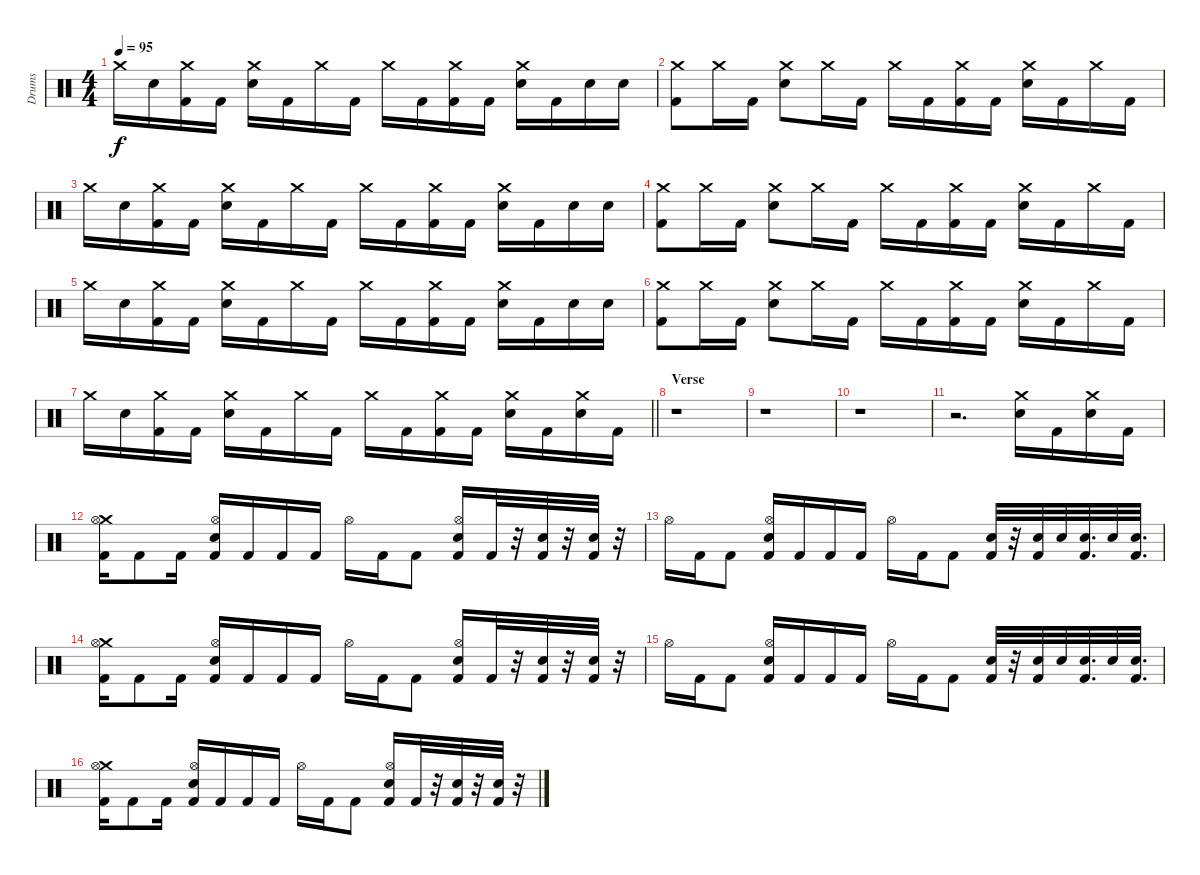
\track ("Drums" "Drums") {instrument percussion}
\staff {score}
\articulation defaults
\ts (4 4)
\tempo 95
\clef neutral
\ks c "Crash medium (hit)".16{dy f} "Electric Snare (hit)".16
("Crash medium (hit)" "Kick (hit) 2").16 "Kick (hit) 2".16 ("Crash medium (hit)" "Electric Snare (hit)").16 "Kick (hit) 2".16 "Crash medium (hit)".16 "Kick (hit) 2".16 "Crash medium (hit)".16 "Kick (hit) 2".16 ("Crash medium (hit)" "Kick (hit) 2").16 "Kick (hit) 2".16 ("Crash medium (hit)" "Electric Snare (hit)").16 "Kick (hit) 2".16 "Electric Snare (hit)".16 "Electric Snare (hit)".16 |
("Crash medium (hit)" "Kick (hit) 2").8 "Crash medium (hit)".16 "Kick (hit) 2".16 ("Crash medium (hit)" "Electric Snare (hit)").8 "Crash medium (hit)".16 "Kick (hit) 2".16 "Crash medium (hit)".16 "Kick (hit) 2".16 ("Crash medium (hit)" "Kick (hit) 2").16 "Kick (hit) 2".16 ("Crash medium (hit)" "Electric Snare (hit)").16 "Kick (hit) 2".16 "Crash medium (hit)".16 "Kick (hit) 2".16 |
"Crash medium (hit)".16 "Electric Snare (hit)".16 ("Crash medium (hit)" "Kick (hit) 2").16 "Kick (hit) 2".16 ("Crash medium (hit)" "Electric Snare (hit)").16 "Kick (hit) 2".16 "Crash medium (hit)".16 "Kick (hit) 2".16 "Crash medium (hit)".16 "Kick (hit) 2".16 ("Crash medium (hit)" "Kick (hit) 2").16 "Kick (hit) 2".16 ("Crash medium (hit)" "Electric Snare (hit)").16 "Kick (hit) 2".16 "Electric Snare (hit)".16 "Electric Snare (hit)".16 |
("Crash medium (hit)" "Kick (hit) 2").8 "Crash medium (hit)".16 "Kick (hit) 2".16 ("Crash medium (hit)" "Electric Snare (hit)").8 "Crash medium (hit)".16 "Kick (hit) 2".16 "Crash medium (hit)".16 "Kick (hit) 2".16 ("Crash medium (hit)" "Kick (hit) 2").16 "Kick (hit) 2".16 ("Crash medium (hit)" "Electric Snare (hit)").16 "Kick (hit) 2".16 "Crash medium (hit)".16 "Kick (hit) 2".16 |
"Crash medium (hit)".16 "Electric Snare (hit)".16 ("Crash medium (hit)" "Kick (hit) 2").16 "Kick (hit) 2".16 ("Crash medium (hit)" "Electric Snare (hit)").16 "Kick (hit) 2".16 "Crash medium (hit)".16 "Kick (hit) 2".16 "Crash medium (hit)".16 "Kick (hit) 2".16 ("Crash medium (hit)" "Kick (hit) 2").16 "Kick (hit) 2".16 ("Crash medium (hit)" "Electric Snare (hit)").16 "Kick (hit) 2".16 "Electric Snare (hit)".16 "Electric Snare (hit)".16 |
("Crash medium (hit)" "Kick (hit) 2").8 "Crash medium (hit)".16 "Kick (hit) 2".16 ("Crash medium (hit)" "Electric Snare (hit)").8 "Crash medium (hit)".16 "Kick (hit) 2".16 "Crash medium (hit)".16 "Kick (hit) 2".16 ("Crash medium (hit)" "Kick (hit) 2").16 "Kick (hit) 2".16 ("Crash medium (hit)" "Electric Snare (hit)").16 "Kick (hit) 2".16 "Crash medium (hit)".16 "Kick (hit) 2".16 |
\barLineRight lightlight "Crash medium (hit)".16 "Electric Snare (hit)".16
("Crash medium (hit)" "Kick (hit) 2").16 "Kick (hit) 2".16 ("Crash medium (hit)" "Electric Snare (hit)").16 "Kick (hit) 2".16 "Crash medium (hit)".16 "Kick (hit) 2".16 "Crash medium (hit)".16 "Kick (hit) 2".16 ("Crash medium (hit)" "Kick (hit) 2").16 "Kick (hit) 2".16 ("Crash medium (hit)" "Electric Snare (hit)").16 "Kick (hit) 2".16 ("Crash medium (hit)" "Electric Snare (hit)").16 "Kick (hit) 2".16 |
\section ("" "Verse")
r.1 |
r.1 |
r.1 |
r.2{d} ("Crash medium (hit)" "Electric Snare (hit)").16 "Kick (hit) 2".16 ("Crash medium (hit)" "Electric Snare (hit)").16 "Kick (hit) 2".16 |
("Crash medium (hit)" "Kick (hit) 2" "Hi-Hat (open)").16 "Kick (hit) 2".8 "Kick (hit) 2".16 ("Hi-Hat (open)" "Kick (hit) 2" "Snare (hit) 2").16 "Kick (hit) 2".16 "Kick (hit) 2".16 "Kick (hit) 2".16 "Hi-Hat (open)".16 "Kick (hit) 2".16 "Kick (hit) 2".8 ("Hi-Hat (open)" "Kick (hit) 2" "Snare (hit) 2").16 "Kick (hit) 2".32 r.32 ("Kick (hit) 2" "Snare (hit) 2").32 r.32 ("Kick (hit) 2" "Snare (hit) 2").32 r.32 |
"Hi-Hat (open)".16 "Kick (hit) 2".16 "Kick (hit) 2".8 ("Hi-Hat (open)" "Kick (hit) 2" "Snare (hit) 2").16 "Kick (hit) 2".16 "Kick (hit) 2".16 "Kick (hit) 2".16 "Hi-Hat (open)".16 "Kick (hit) 2".16 "Kick (hit) 2".8 ("Kick (hit) 2" "Snare (hit) 2").32 r.32 ("Kick (hit) 2" "Snare (hit) 2").32 "Snare (hit) 2".32 ("Kick (hit) 2" "Snare (hit) 2").32{d} "Snare (hit) 2".32 ("Kick (hit) 2" "Snare (hit) 2").32{d} |
("Crash medium (hit)" "Kick (hit) 2" "Hi-Hat (open)").16 "Kick (hit) 2".8 "Kick (hit) 2".16 ("Hi-Hat (open)" "Kick (hit) 2" "Snare (hit) 2").16 "Kick (hit) 2".16 "Kick (hit) 2".16 "Kick (hit) 2".16 "Hi-Hat (open)".16 "Kick (hit) 2".16 "Kick (hit) 2".8 ("Hi-Hat (open)" "Kick (hit) 2" "Snare (hit) 2").16 "Kick (hit) 2".32 r.32 ("Kick (hit) 2" "Snare (hit) 2").32 r.32 ("Kick (hit) 2" "Snare (hit) 2").32 r.32 |
"Hi-Hat (open)".16 "Kick (hit) 2".16 "Kick (hit) 2".8 ("Hi-Hat (open)" "Kick (hit) 2" "Snare (hit) 2").16 "Kick (hit) 2".16 "Kick (hit) 2".16 "Kick (hit) 2".16 "Hi-Hat (open)".16 "Kick (hit) 2".16 "Kick (hit) 2".8 ("Kick (hit) 2" "Snare (hit) 2").32 r.32 ("Kick (hit) 2" "Snare (hit) 2").32 "Snare (hit) 2".32 ("Kick (hit) 2" "Snare (hit) 2").32{d} "Snare (hit) 2".32 ("Kick (hit) 2" "Snare (hit) 2").32{d} |
("Crash medium (hit)" "Kick (hit) 2" "Hi-Hat (open)").16 "Kick (hit) 2".8 "Kick (hit) 2".16 ("Hi-Hat (open)" "Kick (hit) 2" "Snare (hit) 2").16 "Kick (hit) 2".16 "Kick (hit) 2".16 "Kick (hit) 2".16 "Hi-Hat (open)".16 "Kick (hit) 2".16 "Kick (hit) 2".8 ("Hi-Hat (open)" "Kick (hit) 2" "Snare (hit) 2").16 "Kick (hit) 2".32 r.32 ("Kick (hit) 2" "Snare (hit) 2").32 r.32 ("Kick (hit) 2" "Snare (hit) 2").32 r.32
